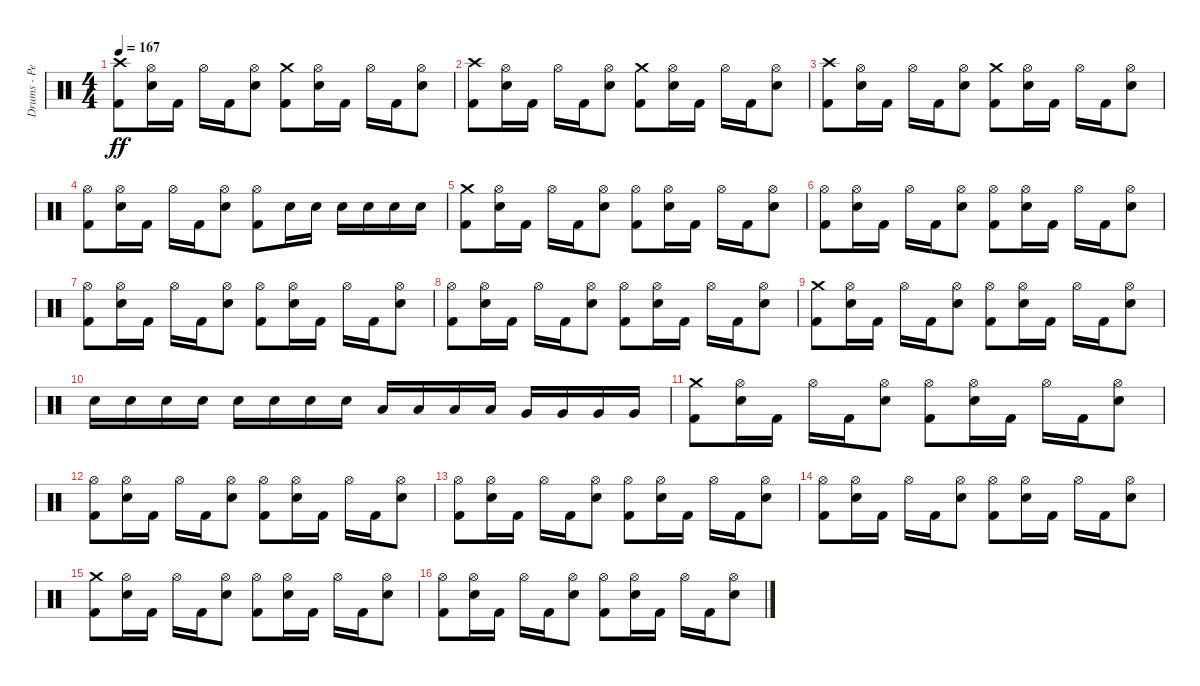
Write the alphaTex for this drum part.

\track ("Drums - Pete Finestone" "Drums - Pe") {instrument percussion}
\staff {score}
\articulation defaults
\ts (4 4)
\tempo 167
\clef neutral
\ks c
("Kick (hit) 2" "Crash high (hit)").8{dy ff} ("Electric Snare (hit)" "Hi-Hat (open)").16 "Kick (hit) 2".16 "Hi-Hat (open)".16 "Kick (hit) 2".16 ("Hi-Hat (open)" "Electric Snare (hit)").8 ("Crash medium (hit)" "Kick (hit) 2").8 ("Hi-Hat (open)" "Electric Snare (hit)").16 "Kick (hit) 2".16 "Hi-Hat (open)".16 "Kick (hit) 2".16 ("Hi-Hat (open)" "Electric Snare (hit)").8 |
("Crash high (hit)" "Kick (hit) 2").8 ("Hi-Hat (open)" "Electric Snare (hit)").16 "Kick (hit) 2".16 "Hi-Hat (open)".16 "Kick (hit) 2".16 ("Hi-Hat (open)" "Electric Snare (hit)").8 ("Crash medium (hit)" "Kick (hit) 2").8 ("Hi-Hat (open)" "Electric Snare (hit)").16 "Kick (hit) 2".16 "Hi-Hat (open)".16 "Kick (hit) 2".16 ("Hi-Hat (open)" "Electric Snare (hit)").8 |
("Crash high (hit)" "Kick (hit) 2").8 ("Hi-Hat (open)" "Electric Snare (hit)").16 "Kick (hit) 2".16 "Hi-Hat (open)".16 "Kick (hit) 2".16 ("Hi-Hat (open)" "Electric Snare (hit)").8 ("Crash medium (hit)" "Kick (hit) 2").8 ("Hi-Hat (open)" "Electric Snare (hit)").16 "Kick (hit) 2".16 "Hi-Hat (open)".16 "Kick (hit) 2".16 ("Hi-Hat (open)" "Electric Snare (hit)").8 |
("Kick (hit) 2" "Hi-Hat (open)").8 ("Electric Snare (hit)" "Hi-Hat (open)").16 "Kick (hit) 2".16 "Hi-Hat (open)".16 "Kick (hit) 2".16 ("Electric Snare (hit)" "Hi-Hat (open)").8 ("Kick (hit) 2" "Hi-Hat (open)").8 "Electric Snare (hit)".16 "Electric Snare (hit)".16 "Electric Snare (hit)".16 "Electric Snare (hit)".16 "Electric Snare (hit)".16 "Electric Snare (hit)".16 |
("Crash medium (hit)" "Kick (hit) 2").8 ("Hi-Hat (open)" "Electric Snare (hit)").16 "Kick (hit) 2".16 "Hi-Hat (open)".16 "Kick (hit) 2".16 ("Electric Snare (hit)" "Hi-Hat (open)").8 ("Hi-Hat (open)" "Kick (hit) 2").8 ("Hi-Hat (open)" "Electric Snare (hit)").16 "Kick (hit) 2".16 "Hi-Hat (open)".16 "Kick (hit) 2".16 ("Hi-Hat (open)" "Electric Snare (hit)").8 |
("Hi-Hat (open)" "Kick (hit) 2").8 ("Hi-Hat (open)" "Electric Snare (hit)").16 "Kick (hit) 2".16 "Hi-Hat (open)".16 "Kick (hit) 2".16 ("Hi-Hat (open)" "Electric Snare (hit)").8 ("Hi-Hat (open)" "Kick (hit) 2").8 ("Hi-Hat (open)" "Electric Snare (hit)").16 "Kick (hit) 2".16 "Hi-Hat (open)".16 "Kick (hit) 2".16 ("Hi-Hat (open)" "Electric Snare (hit)").8 |
("Hi-Hat (open)" "Kick (hit) 2").8 ("Hi-Hat (open)" "Electric Snare (hit)").16 "Kick (hit) 2".16 "Hi-Hat (open)".16 "Kick (hit) 2".16 ("Hi-Hat (open)" "Electric Snare (hit)").8 ("Hi-Hat (open)" "Kick (hit) 2").8 ("Hi-Hat (open)" "Electric Snare (hit)").16 "Kick (hit) 2".16 "Hi-Hat (open)".16 "Kick (hit) 2".16 ("Hi-Hat (open)" "Electric Snare (hit)").8 |
("Hi-Hat (open)" "Kick (hit) 2").8 ("Hi-Hat (open)" "Electric Snare (hit)").16 "Kick (hit) 2".16 "Hi-Hat (open)".16 "Kick (hit) 2".16 ("Hi-Hat (open)" "Electric Snare (hit)").8 ("Hi-Hat (open)" "Kick (hit) 2").8 ("Hi-Hat (open)" "Electric Snare (hit)").16 "Kick (hit) 2".16 "Hi-Hat (open)".16 "Kick (hit) 2".16 ("Hi-Hat (open)" "Electric Snare (hit)").8 |
("Crash medium (hit)" "Kick (hit) 2").8 ("Hi-Hat (open)" "Electric Snare (hit)").16 "Kick (hit) 2".16 "Hi-Hat (open)".16 "Kick (hit) 2".16 ("Electric Snare (hit)" "Hi-Hat (open)").8 ("Hi-Hat (open)" "Kick (hit) 2").8 ("Hi-Hat (open)" "Electric Snare (hit)").16 "Kick (hit) 2".16 "Hi-Hat (open)".16 "Kick (hit) 2".16 ("Hi-Hat (open)" "Electric Snare (hit)").8 |
"Electric Snare (hit)".16 "Electric Snare (hit)".16 "Electric Snare (hit)".16 "Electric Snare (hit)".16 "Electric Snare (hit)".16 "Electric Snare (hit)".16 "Electric Snare (hit)".16 "Electric Snare (hit)".16 "Low Tom (hit)".16 "Low Tom (hit)".16 "Low Tom (hit)".16 "Low Tom (hit)".16 "Very Low Tom (hit)".16 "Very Low Tom (hit)".16 "Very Low Tom (hit)".16 "Very Low Tom (hit)".16 |
("Crash medium (hit)" "Kick (hit) 2").8 ("Hi-Hat (open)" "Electric Snare (hit)").16 "Kick (hit) 2".16 "Hi-Hat (open)".16 "Kick (hit) 2".16 ("Electric Snare (hit)" "Hi-Hat (open)").8 ("Hi-Hat (open)" "Kick (hit) 2").8 ("Hi-Hat (open)" "Electric Snare (hit)").16 "Kick (hit) 2".16 "Hi-Hat (open)".16 "Kick (hit) 2".16 ("Hi-Hat (open)" "Electric Snare (hit)").8 |
("Hi-Hat (open)" "Kick (hit) 2").8 ("Hi-Hat (open)" "Electric Snare (hit)").16 "Kick (hit) 2".16 "Hi-Hat (open)".16 "Kick (hit) 2".16 ("Hi-Hat (open)" "Electric Snare (hit)").8 ("Hi-Hat (open)" "Kick (hit) 2").8 ("Hi-Hat (open)" "Electric Snare (hit)").16 "Kick (hit) 2".16 "Hi-Hat (open)".16 "Kick (hit) 2".16 ("Hi-Hat (open)" "Electric Snare (hit)").8 |
("Hi-Hat (open)" "Kick (hit) 2").8 ("Hi-Hat (open)" "Electric Snare (hit)").16 "Kick (hit) 2".16 "Hi-Hat (open)".16 "Kick (hit) 2".16 ("Hi-Hat (open)" "Electric Snare (hit)").8 ("Hi-Hat (open)" "Kick (hit) 2").8 ("Hi-Hat (open)" "Electric Snare (hit)").16 "Kick (hit) 2".16 "Hi-Hat (open)".16 "Kick (hit) 2".16 ("Hi-Hat (open)" "Electric Snare (hit)").8 |
("Hi-Hat (open)" "Kick (hit) 2").8 ("Hi-Hat (open)" "Electric Snare (hit)").16 "Kick (hit) 2".16 "Hi-Hat (open)".16 "Kick (hit) 2".16 ("Hi-Hat (open)" "Electric Snare (hit)").8 ("Hi-Hat (open)" "Kick (hit) 2").8 ("Hi-Hat (open)" "Electric Snare (hit)").16 "Kick (hit) 2".16 "Hi-Hat (open)".16 "Kick (hit) 2".16 ("Hi-Hat (open)" "Electric Snare (hit)").8 |
("Crash medium (hit)" "Kick (hit) 2").8 ("Hi-Hat (open)" "Electric Snare (hit)").16 "Kick (hit) 2".16 "Hi-Hat (open)".16 "Kick (hit) 2".16 ("Electric Snare (hit)" "Hi-Hat (open)").8 ("Hi-Hat (open)" "Kick (hit) 2").8 ("Hi-Hat (open)" "Electric Snare (hit)").16 "Kick (hit) 2".16 "Hi-Hat (open)".16 "Kick (hit) 2".16 ("Hi-Hat (open)" "Electric Snare (hit)").8 |
("Hi-Hat (open)" "Kick (hit) 2").8 ("Hi-Hat (open)" "Electric Snare (hit)").16 "Kick (hit) 2".16 "Hi-Hat (open)".16 "Kick (hit) 2".16 ("Hi-Hat (open)" "Electric Snare (hit)").8 ("Hi-Hat (open)" "Kick (hit) 2").8 ("Hi-Hat (open)" "Electric Snare (hit)").16 "Kick (hit) 2".16 "Hi-Hat (open)".16 "Kick (hit) 2".16 ("Hi-Hat (open)" "Electric Snare (hit)").8
